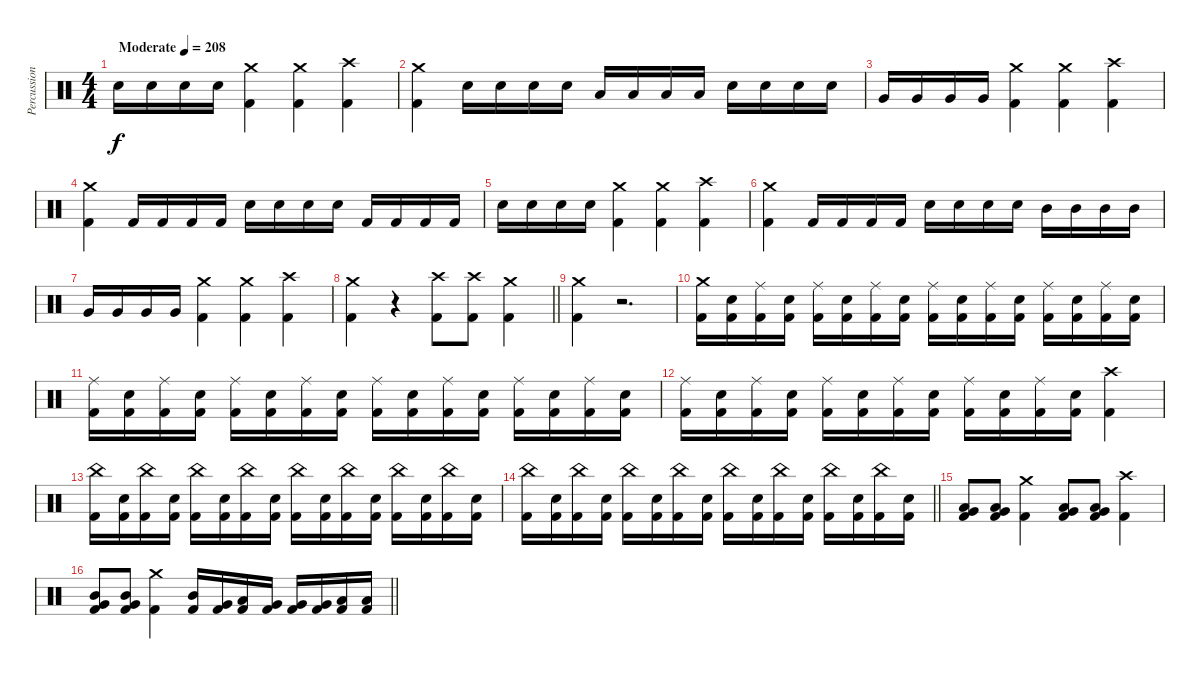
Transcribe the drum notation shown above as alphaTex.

\track ("Percussion" "Percussion") {instrument percussion}
\staff {score}
\articulation defaults
\ts (4 4)
\tempo (208 "Moderate")
\clef neutral
\ks c "Snare (hit) 2".16{dy f} "Snare (hit) 2".16 "Snare (hit) 2".16 "Snare (hit) 2".16
("Crash medium (hit)" "Kick (hit) 2").4 ("Crash medium (hit)" "Kick (hit) 2").4 ("Crash high (hit)" "Kick (hit) 2").4 |
("Crash medium (hit)" "Kick (hit) 2").4 "Snare (hit) 2".16 "Snare (hit) 2".16 "Snare (hit) 2".16 "Snare (hit) 2".16 "Low Tom (hit)".16 "Low Tom (hit)".16 "Low Tom (hit)".16 "Low Tom (hit)".16 "Snare (hit) 2".16 "Snare (hit) 2".16 "Snare (hit) 2".16 "Snare (hit) 2".16 |
"Very Low Tom (hit)".16 "Very Low Tom (hit)".16 "Very Low Tom (hit)".16 "Very Low Tom (hit)".16 ("Crash medium (hit)" "Kick (hit) 2").4 ("Crash medium (hit)" "Kick (hit) 2").4 ("Crash high (hit)" "Kick (hit) 2").4 |
("Crash medium (hit)" "Kick (hit) 2").4 "Kick (hit) 2".16 "Kick (hit) 2".16 "Kick (hit) 2".16 "Kick (hit) 2".16 "Snare (hit) 2".16 "Snare (hit) 2".16 "Snare (hit) 2".16 "Snare (hit) 2".16 "Kick (hit) 2".16 "Kick (hit) 2".16 "Kick (hit) 2".16 "Kick (hit) 2".16 |
"Snare (hit) 2".16 "Snare (hit) 2".16 "Snare (hit) 2".16 "Snare (hit) 2".16 ("Crash medium (hit)" "Kick (hit) 2").4 ("Crash medium (hit)" "Kick (hit) 2").4 ("Crash high (hit)" "Kick (hit) 2").4 |
("Crash medium (hit)" "Kick (hit) 2").4 "Kick (hit) 2".16 "Kick (hit) 2".16 "Kick (hit) 2".16 "Kick (hit) 2".16 "Snare (hit) 2".16 "Snare (hit) 2".16 "Snare (hit) 2".16 "Snare (hit) 2".16 "Mid Tom (hit)".16 "Mid Tom (hit)".16 "Mid Tom (hit)".16 "Mid Tom (hit)".16 |
"Very Low Tom (hit)".16 "Very Low Tom (hit)".16 "Very Low Tom (hit)".16 "Very Low Tom (hit)".16 ("Crash medium (hit)" "Kick (hit) 2").4 ("Crash medium (hit)" "Kick (hit) 2").4 ("Crash high (hit)" "Kick (hit) 2").4 |
\barLineRight lightlight
("Crash medium (hit)" "Kick (hit) 2").4 r.4 ("Crash high (hit)" "Kick (hit) 2").8 ("Crash high (hit)" "Kick (hit) 2").8 ("Crash medium (hit)" "Kick (hit) 2").4 |
("Crash medium (hit)" "Kick (hit) 2").4 r.2{d} |
("Crash medium (hit)" "Kick (hit) 2").16 ("Snare (hit) 2" "Kick (hit) 2").16 ("Ride (middle)" "Kick (hit) 2").16 ("Snare (hit) 2" "Kick (hit) 2").16 ("Ride (middle)" "Kick (hit) 2").16 ("Snare (hit) 2" "Kick (hit) 2").16 ("Ride (middle)" "Kick (hit) 2").16 ("Snare (hit) 2" "Kick (hit) 2").16 ("Ride (middle)" "Kick (hit) 2").16 ("Snare (hit) 2" "Kick (hit) 2").16 ("Ride (middle)" "Kick (hit) 2").16 ("Snare (hit) 2" "Kick (hit) 2").16 ("Ride (middle)" "Kick (hit) 2").16 ("Snare (hit) 2" "Kick (hit) 2").16 ("Ride (middle)" "Kick (hit) 2").16 ("Snare (hit) 2" "Kick (hit) 2").16 |
("Ride (middle)" "Kick (hit) 2").16 ("Snare (hit) 2" "Kick (hit) 2").16 ("Ride (middle)" "Kick (hit) 2").16 ("Snare (hit) 2" "Kick (hit) 2").16 ("Ride (middle)" "Kick (hit) 2").16 ("Snare (hit) 2" "Kick (hit) 2").16 ("Ride (middle)" "Kick (hit) 2").16 ("Snare (hit) 2" "Kick (hit) 2").16 ("Ride (middle)" "Kick (hit) 2").16 ("Snare (hit) 2" "Kick (hit) 2").16 ("Ride (middle)" "Kick (hit) 2").16 ("Snare (hit) 2" "Kick (hit) 2").16 ("Ride (middle)" "Kick (hit) 2").16 ("Snare (hit) 2" "Kick (hit) 2").16 ("Ride (middle)" "Kick (hit) 2").16 ("Snare (hit) 2" "Kick (hit) 2").16 |
("Ride (middle)" "Kick (hit) 2").16 ("Snare (hit) 2" "Kick (hit) 2").16 ("Ride (middle)" "Kick (hit) 2").16 ("Snare (hit) 2" "Kick (hit) 2").16 ("Ride (middle)" "Kick (hit) 2").16 ("Snare (hit) 2" "Kick (hit) 2").16 ("Ride (middle)" "Kick (hit) 2").16 ("Snare (hit) 2" "Kick (hit) 2").16 ("Ride (middle)" "Kick (hit) 2").16 ("Snare (hit) 2" "Kick (hit) 2").16 ("Ride (middle)" "Kick (hit) 2").16 ("Snare (hit) 2" "Kick (hit) 2").16 ("Crash high (hit)" "Kick (hit) 2").4 |
("China (hit)" "Kick (hit) 2").16 ("Snare (hit) 2" "Kick (hit) 2").16 ("China (hit)" "Kick (hit) 2").16 ("Snare (hit) 2" "Kick (hit) 2").16 ("China (hit)" "Kick (hit) 2").16 ("Snare (hit) 2" "Kick (hit) 2").16 ("China (hit)" "Kick (hit) 2").16 ("Snare (hit) 2" "Kick (hit) 2").16 ("China (hit)" "Kick (hit) 2").16 ("Snare (hit) 2" "Kick (hit) 2").16 ("China (hit)" "Kick (hit) 2").16 ("Snare (hit) 2" "Kick (hit) 2").16 ("China (hit)" "Kick (hit) 2").16 ("Snare (hit) 2" "Kick (hit) 2").16 ("China (hit)" "Kick (hit) 2").16 ("Snare (hit) 2" "Kick (hit) 2").16 |
\barLineRight lightlight
("China (hit)" "Kick (hit) 2").16 ("Snare (hit) 2" "Kick (hit) 2").16 ("China (hit)" "Kick (hit) 2").16 ("Snare (hit) 2" "Kick (hit) 2").16 ("China (hit)" "Kick (hit) 2").16 ("Snare (hit) 2" "Kick (hit) 2").16 ("China (hit)" "Kick (hit) 2").16 ("Snare (hit) 2" "Kick (hit) 2").16 ("China (hit)" "Kick (hit) 2").16 ("Snare (hit) 2" "Kick (hit) 2").16 ("China (hit)" "Kick (hit) 2").16 ("Snare (hit) 2" "Kick (hit) 2").16 ("China (hit)" "Kick (hit) 2").16 ("Snare (hit) 2" "Kick (hit) 2").16 ("China (hit)" "Kick (hit) 2").16 ("Snare (hit) 2" "Kick (hit) 2").16 |
("Very Low Tom (hit)" "Low Floor Tom (hit)" "Kick (hit) 2").8 ("Very Low Tom (hit)" "Low Floor Tom (hit)" "Kick (hit) 2").8 ("Crash medium (hit)" "Kick (hit) 2").4 ("Low Tom (hit)" "Very Low Tom (hit)" "Kick (hit) 2").8 ("Low Tom (hit)" "Very Low Tom (hit)" "Kick (hit) 2").8 ("Crash high (hit)" "Kick (hit) 2").4 |
\barLineRight lightlight
("Mid Tom (hit)" "Very Low Tom (hit)" "Kick (hit) 2").8 ("Mid Tom (hit)" "Very Low Tom (hit)" "Kick (hit) 2").8 ("Crash medium (hit)" "Kick (hit) 2").4 ("Mid Tom (hit)" "Kick (hit) 2").16 ("Very Low Tom (hit)" "Kick (hit) 2").16 ("Low Floor Tom (hit)" "Kick (hit) 2").16 ("Very Low Tom (hit)" "Kick (hit) 2").16 ("Very Low Tom (hit)" "Kick (hit) 2").16 ("Very Low Tom (hit)" "Kick (hit) 2").16 ("Low Floor Tom (hit)" "Kick (hit) 2").16 ("Low Floor Tom (hit)" "Kick (hit) 2").16
